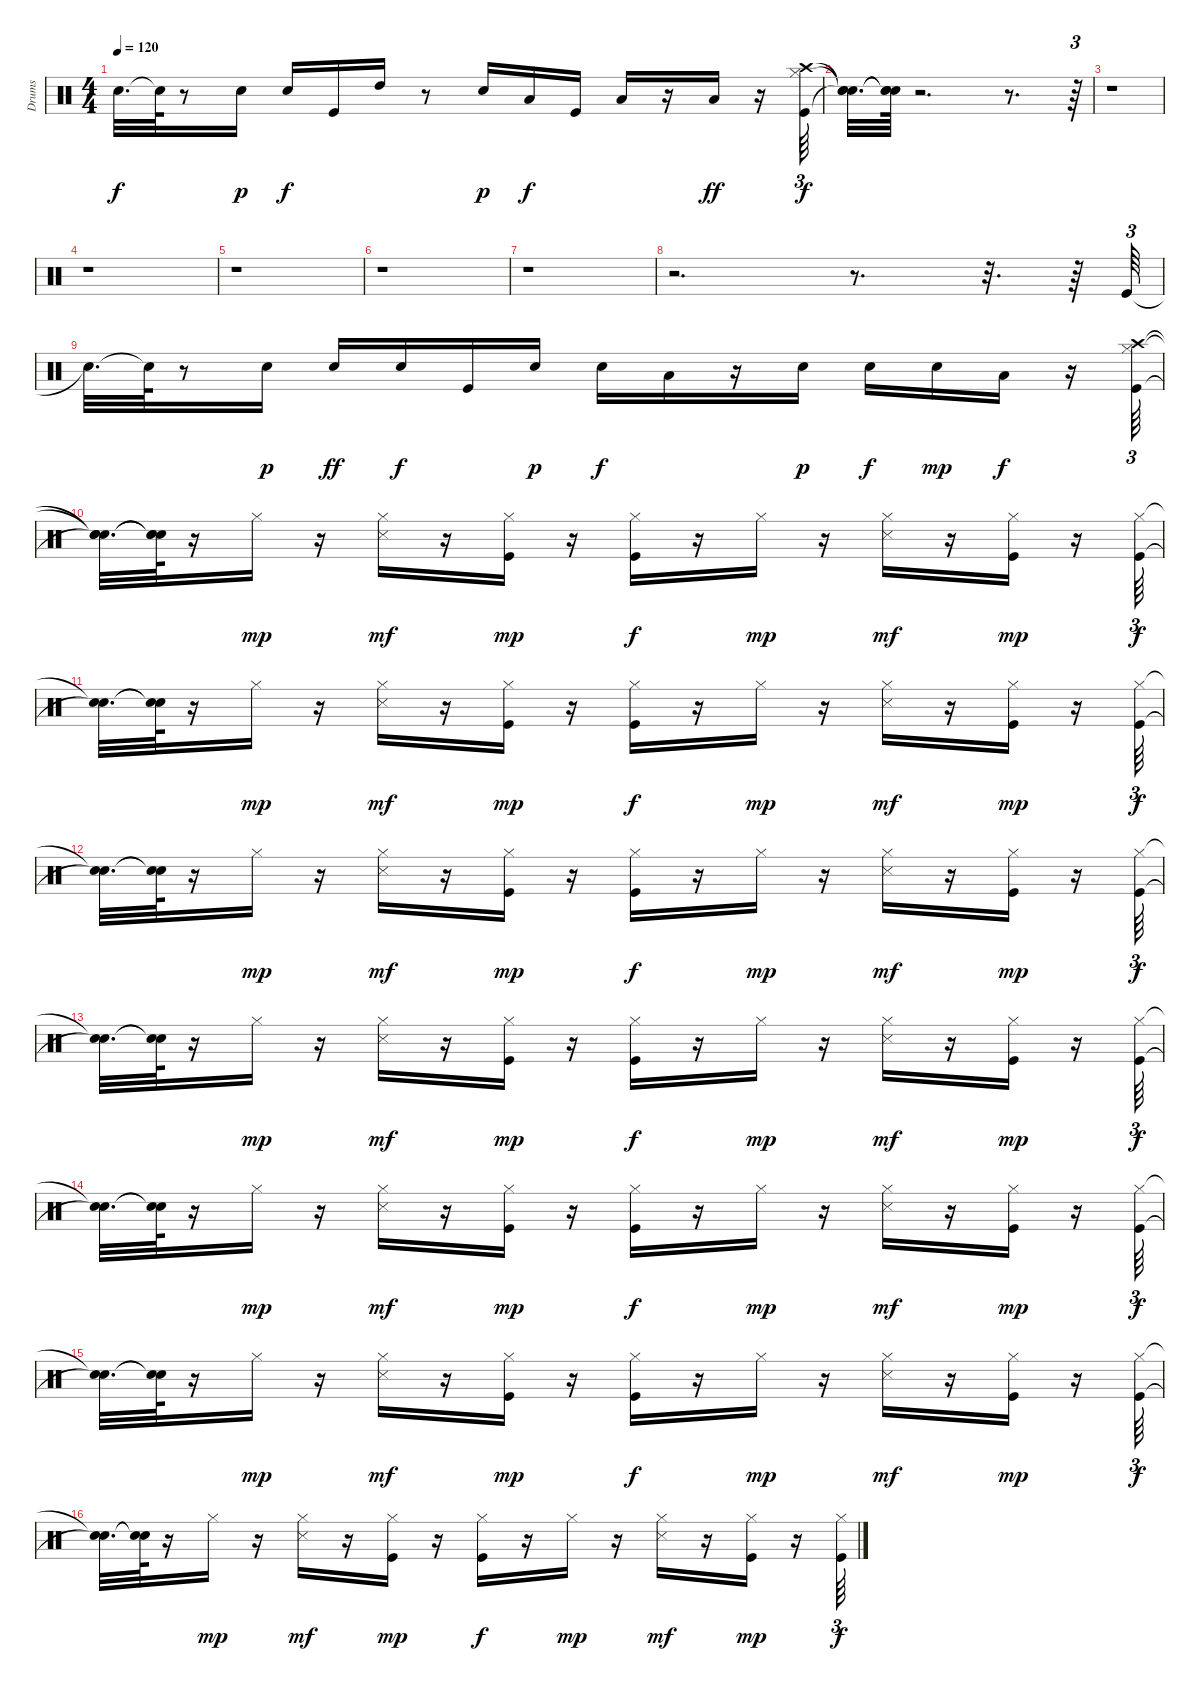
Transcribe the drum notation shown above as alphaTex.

\track ("Drums" "Drums") {instrument percussion}
\staff {score}
\articulation defaults
\ts (4 4)
\tempo 120
\clef neutral
\ks c "Snare (hit)"{t}.32{d dy f} "Snare (hit)"{t}.64
r.8 "Snare (hit) 2".16{dy p} "Snare (hit) 2".16{dy f} "Kick (hit)".16 "High Tom (hit)".16 r.8 "Snare (hit) 2".16{dy p} "Low Tom (hit)".16{dy f} "Kick (hit)".16 "Low Floor Tom (hit)".16 r.16 "Low Floor Tom (hit)".16{dy ff} r.16 ("Kick (hit)" "Hi-Hat (closed)" "Crash high (hit)").64{tu (3 2) dy f} |
("Snare (hit)"{t} "Snare (hit)"{t} "Snare (hit)"{t}).32{d} ("Snare (hit)"{t} "Snare (hit)"{t} "Snare (hit)"{t}).64 r.2{d} r.8{d} r.64{tu (3 2)} |
r.1 |
r.1 |
r.1 |
r.1 |
r.1 |
r.2{d} r.8{d} r.32{d} r.64 "Kick (hit)".64{tu (3 2)} |
"Snare (hit)"{t}.32{d} "Snare (hit)"{t}.64 r.8 "Snare (hit) 2".16{dy p} "Snare (hit) 2".16{dy ff} "Snare (hit) 2".16{dy f} "Kick (hit)".16 "Snare (hit) 2".16{dy p} "Snare (hit) 2".16{dy f} "Low Tom (hit)".16 r.16 "Snare (hit) 2".16{dy p} "Snare (hit) 2".16{dy f} "Snare (hit) 2".16{dy mp} "Low Floor Tom (hit)".16{dy f} r.16 ("Kick (hit)" "Hi-Hat (closed)" "Crash high (hit)").64{tu (3 2)} |
("Snare (hit)"{t} "Snare (hit)"{t} "Snare (hit)"{t}).32{d} ("Snare (hit)"{t} "Snare (hit)"{t} "Snare (hit)"{t}).64 r.16 "Hi-Hat (closed)".16{dy mp} r.16 ("Hi-Hat (closed)" "Snare (side stick) 3").16{dy mf} r.16 ("Kick (hit)" "Hi-Hat (closed)").16{dy mp} r.16 ("Kick (hit)" "Hi-Hat (closed)").16{dy f} r.16 "Hi-Hat (closed)".16{dy mp} r.16 ("Hi-Hat (closed)" "Snare (side stick) 3").16{dy mf} r.16 ("Kick (hit)" "Hi-Hat (closed)").16{dy mp} r.16 ("Kick (hit)" "Hi-Hat (closed)").64{tu (3 2) dy f} |
("Snare (hit)"{t} "Snare (hit)"{t}).32{d} ("Snare (hit)"{t} "Snare (hit)"{t}).64 r.16 "Hi-Hat (closed)".16{dy mp} r.16 ("Hi-Hat (closed)" "Snare (side stick) 3").16{dy mf} r.16 ("Kick (hit)" "Hi-Hat (closed)").16{dy mp} r.16 ("Kick (hit)" "Hi-Hat (closed)").16{dy f} r.16 "Hi-Hat (closed)".16{dy mp} r.16 ("Hi-Hat (closed)" "Snare (side stick) 3").16{dy mf} r.16 ("Kick (hit)" "Hi-Hat (closed)").16{dy mp} r.16 ("Kick (hit)" "Hi-Hat (closed)").64{tu (3 2) dy f} |
("Snare (hit)"{t} "Snare (hit)"{t}).32{d} ("Snare (hit)"{t} "Snare (hit)"{t}).64 r.16 "Hi-Hat (closed)".16{dy mp} r.16 ("Hi-Hat (closed)" "Snare (side stick) 3").16{dy mf} r.16 ("Kick (hit)" "Hi-Hat (closed)").16{dy mp} r.16 ("Kick (hit)" "Hi-Hat (closed)").16{dy f} r.16 "Hi-Hat (closed)".16{dy mp} r.16 ("Hi-Hat (closed)" "Snare (side stick) 3").16{dy mf} r.16 ("Kick (hit)" "Hi-Hat (closed)").16{dy mp} r.16 ("Kick (hit)" "Hi-Hat (closed)").64{tu (3 2) dy f} |
("Snare (hit)"{t} "Snare (hit)"{t}).32{d} ("Snare (hit)"{t} "Snare (hit)"{t}).64 r.16 "Hi-Hat (closed)".16{dy mp} r.16 ("Hi-Hat (closed)" "Snare (side stick) 3").16{dy mf} r.16 ("Kick (hit)" "Hi-Hat (closed)").16{dy mp} r.16 ("Kick (hit)" "Hi-Hat (closed)").16{dy f} r.16 "Hi-Hat (closed)".16{dy mp} r.16 ("Hi-Hat (closed)" "Snare (side stick) 3").16{dy mf} r.16 ("Kick (hit)" "Hi-Hat (closed)").16{dy mp} r.16 ("Kick (hit)" "Hi-Hat (closed)").64{tu (3 2) dy f} |
("Snare (hit)"{t} "Snare (hit)"{t}).32{d} ("Snare (hit)"{t} "Snare (hit)"{t}).64 r.16 "Hi-Hat (closed)".16{dy mp} r.16 ("Hi-Hat (closed)" "Snare (side stick) 3").16{dy mf} r.16 ("Kick (hit)" "Hi-Hat (closed)").16{dy mp} r.16 ("Kick (hit)" "Hi-Hat (closed)").16{dy f} r.16 "Hi-Hat (closed)".16{dy mp} r.16 ("Hi-Hat (closed)" "Snare (side stick) 3").16{dy mf} r.16 ("Kick (hit)" "Hi-Hat (closed)").16{dy mp} r.16 ("Kick (hit)" "Hi-Hat (closed)").64{tu (3 2) dy f} |
("Snare (hit)"{t} "Snare (hit)"{t}).32{d} ("Snare (hit)"{t} "Snare (hit)"{t}).64 r.16 "Hi-Hat (closed)".16{dy mp} r.16 ("Hi-Hat (closed)" "Snare (side stick) 3").16{dy mf} r.16 ("Kick (hit)" "Hi-Hat (closed)").16{dy mp} r.16 ("Kick (hit)" "Hi-Hat (closed)").16{dy f} r.16 "Hi-Hat (closed)".16{dy mp} r.16 ("Hi-Hat (closed)" "Snare (side stick) 3").16{dy mf} r.16 ("Kick (hit)" "Hi-Hat (closed)").16{dy mp} r.16 ("Kick (hit)" "Hi-Hat (closed)").64{tu (3 2) dy f} |
("Snare (hit)"{t} "Snare (hit)"{t}).32{d} ("Snare (hit)"{t} "Snare (hit)"{t}).64 r.16 "Hi-Hat (closed)".16{dy mp} r.16 ("Hi-Hat (closed)" "Snare (side stick) 3").16{dy mf} r.16 ("Kick (hit)" "Hi-Hat (closed)").16{dy mp} r.16 ("Kick (hit)" "Hi-Hat (closed)").16{dy f} r.16 "Hi-Hat (closed)".16{dy mp} r.16 ("Hi-Hat (closed)" "Snare (side stick) 3").16{dy mf} r.16 ("Kick (hit)" "Hi-Hat (closed)").16{dy mp} r.16 ("Kick (hit)" "Hi-Hat (closed)").64{tu (3 2) dy f}
